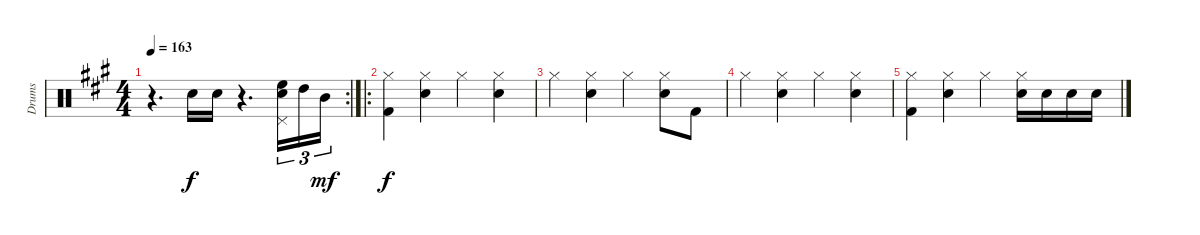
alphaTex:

\track ("Drums" "Drums") {instrument percussion}
\staff {score}
\articulation defaults
\rc 2
\ts (4 4)
\tempo 163
\clef neutral
\ks a
r.4{d dy f} "Snare (hit) 2".16 "Snare (hit) 2".16 r.4{d} ("Pedal Hi-Hat (hit)" "High Floor Tom (hit)" "Snare (hit) 2").16{tu (3 2)} "High Tom (hit)".16{tu (3 2)} "Mid Tom (hit)".16{tu (3 2) dy mf} |
\ro
("Hi-Hat (closed)" "Kick (hit) 2").4{dy f} ("Hi-Hat (closed)" "Snare (hit) 2").4 "Hi-Hat (closed)".4 ("Hi-Hat (closed)" "Snare (hit) 2").4 |
"Hi-Hat (closed)".4 ("Hi-Hat (closed)" "Snare (hit) 2").4 "Hi-Hat (closed)".4 ("Hi-Hat (closed)" "Snare (hit) 2").8 "Kick (hit) 2".8 |
"Hi-Hat (closed)".4 ("Hi-Hat (closed)" "Snare (hit) 2").4 "Hi-Hat (closed)".4 ("Hi-Hat (closed)" "Snare (hit) 2").4 |
("Hi-Hat (closed)" "Kick (hit) 2").4 ("Hi-Hat (closed)" "Snare (hit) 2").4 "Hi-Hat (closed)".4 ("Hi-Hat (closed)" "Snare (hit) 2").16 "Snare (hit) 2".16 "Snare (hit) 2".16 "Snare (hit) 2".16
